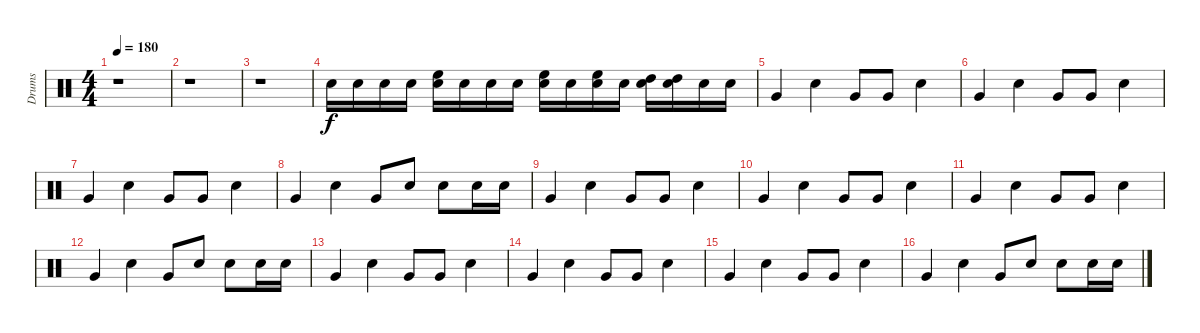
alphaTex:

\track ("Drums" "Drums") {instrument percussion}
\staff {score}
\articulation defaults
\ts (4 4)
\tempo 180
\clef neutral
\ks c
r.1{dy f} |
r.1 |
r.1 |
"Electric Snare (hit)".16 "Electric Snare (hit)".16 "Electric Snare (hit)".16 "Electric Snare (hit)".16 ("Electric Snare (hit)" "High Floor Tom (hit)").16 "Electric Snare (hit)".16 "Electric Snare (hit)".16 "Electric Snare (hit)".16 ("Electric Snare (hit)" "High Floor Tom (hit)").16 "Electric Snare (hit)".16 ("Electric Snare (hit)" "High Floor Tom (hit)").16 "Electric Snare (hit)".16 ("Electric Snare (hit)" "High Tom (hit)").16 ("Electric Snare (hit)" "High Tom (hit)").16 "Electric Snare (hit)".16 "Electric Snare (hit)".16 |
"Very Low Tom (hit)".4 "Electric Snare (hit)".4 "Very Low Tom (hit)".8 "Very Low Tom (hit)".8 "Electric Snare (hit)".4 |
"Very Low Tom (hit)".4 "Electric Snare (hit)".4 "Very Low Tom (hit)".8 "Very Low Tom (hit)".8 "Electric Snare (hit)".4 |
"Very Low Tom (hit)".4 "Electric Snare (hit)".4 "Very Low Tom (hit)".8 "Very Low Tom (hit)".8 "Electric Snare (hit)".4 |
"Very Low Tom (hit)".4 "Electric Snare (hit)".4 "Very Low Tom (hit)".8 "Electric Snare (hit)".8 "Electric Snare (hit)".8 "Electric Snare (hit)".16 "Electric Snare (hit)".16 |
"Very Low Tom (hit)".4 "Electric Snare (hit)".4 "Very Low Tom (hit)".8 "Very Low Tom (hit)".8 "Electric Snare (hit)".4 |
"Very Low Tom (hit)".4 "Electric Snare (hit)".4 "Very Low Tom (hit)".8 "Very Low Tom (hit)".8 "Electric Snare (hit)".4 |
"Very Low Tom (hit)".4 "Electric Snare (hit)".4 "Very Low Tom (hit)".8 "Very Low Tom (hit)".8 "Electric Snare (hit)".4 |
"Very Low Tom (hit)".4 "Electric Snare (hit)".4 "Very Low Tom (hit)".8 "Electric Snare (hit)".8 "Electric Snare (hit)".8 "Electric Snare (hit)".16 "Electric Snare (hit)".16 |
"Very Low Tom (hit)".4 "Electric Snare (hit)".4 "Very Low Tom (hit)".8 "Very Low Tom (hit)".8 "Electric Snare (hit)".4 |
"Very Low Tom (hit)".4 "Electric Snare (hit)".4 "Very Low Tom (hit)".8 "Very Low Tom (hit)".8 "Electric Snare (hit)".4 |
"Very Low Tom (hit)".4 "Electric Snare (hit)".4 "Very Low Tom (hit)".8 "Very Low Tom (hit)".8 "Electric Snare (hit)".4 |
"Very Low Tom (hit)".4 "Electric Snare (hit)".4 "Very Low Tom (hit)".8 "Electric Snare (hit)".8 "Electric Snare (hit)".8 "Electric Snare (hit)".16 "Electric Snare (hit)".16
